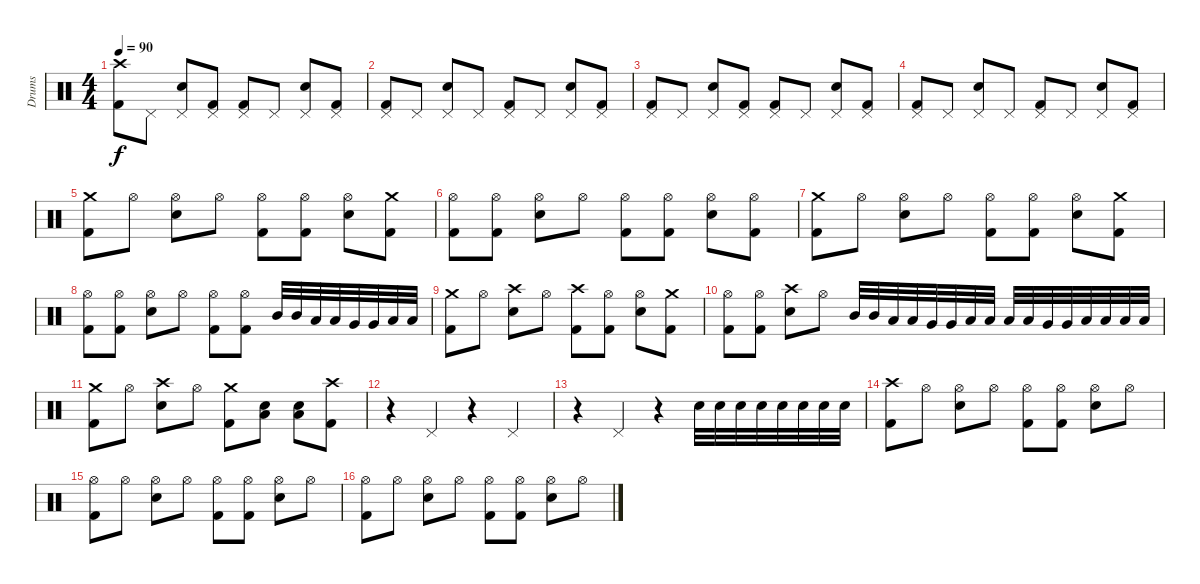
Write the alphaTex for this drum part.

\track ("Drums" "Drums") {instrument percussion}
\staff {score}
\articulation defaults
\ts (4 4)
\tempo 90
\clef neutral
\ks c
("Crash high (hit)" "Kick (hit) 2").8{dy f} "Pedal Hi-Hat (hit)".8 ("Pedal Hi-Hat (hit)" "Electric Snare (hit)").8 ("Pedal Hi-Hat (hit)" "Kick (hit) 2").8 ("Pedal Hi-Hat (hit)" "Kick (hit) 2").8 "Pedal Hi-Hat (hit)".8 ("Pedal Hi-Hat (hit)" "Electric Snare (hit)").8 ("Pedal Hi-Hat (hit)" "Kick (hit) 2").8 |
("Pedal Hi-Hat (hit)" "Kick (hit) 2").8 "Pedal Hi-Hat (hit)".8 ("Pedal Hi-Hat (hit)" "Electric Snare (hit)").8 "Pedal Hi-Hat (hit)".8 ("Pedal Hi-Hat (hit)" "Kick (hit) 2").8 "Pedal Hi-Hat (hit)".8 ("Pedal Hi-Hat (hit)" "Electric Snare (hit)").8 ("Pedal Hi-Hat (hit)" "Kick (hit) 2").8 |
("Pedal Hi-Hat (hit)" "Kick (hit) 2").8 "Pedal Hi-Hat (hit)".8 ("Pedal Hi-Hat (hit)" "Electric Snare (hit)").8 ("Pedal Hi-Hat (hit)" "Kick (hit) 2").8 ("Pedal Hi-Hat (hit)" "Kick (hit) 2").8 "Pedal Hi-Hat (hit)".8 ("Pedal Hi-Hat (hit)" "Electric Snare (hit)").8 ("Pedal Hi-Hat (hit)" "Kick (hit) 2").8 |
("Pedal Hi-Hat (hit)" "Kick (hit) 2").8 "Pedal Hi-Hat (hit)".8 ("Pedal Hi-Hat (hit)" "Electric Snare (hit)").8 "Pedal Hi-Hat (hit)".8 ("Pedal Hi-Hat (hit)" "Kick (hit) 2").8 "Pedal Hi-Hat (hit)".8 ("Pedal Hi-Hat (hit)" "Electric Snare (hit)").8 ("Pedal Hi-Hat (hit)" "Kick (hit) 2").8 |
("Crash medium (hit)" "Kick (hit) 2").8 "Hi-Hat (open)".8 ("Hi-Hat (open)" "Electric Snare (hit)").8 "Hi-Hat (open)".8 ("Hi-Hat (open)" "Kick (hit) 2").8 ("Hi-Hat (open)" "Kick (hit) 2").8 ("Hi-Hat (open)" "Electric Snare (hit)").8 ("Crash medium (hit)" "Kick (hit) 2").8 |
("Hi-Hat (open)" "Kick (hit) 2").8 ("Hi-Hat (open)" "Kick (hit) 2").8 ("Hi-Hat (open)" "Electric Snare (hit)").8 "Hi-Hat (open)".8 ("Hi-Hat (open)" "Kick (hit) 2").8 ("Hi-Hat (open)" "Kick (hit) 2").8 ("Hi-Hat (open)" "Electric Snare (hit)").8 ("Hi-Hat (open)" "Kick (hit) 2").8 |
("Crash medium (hit)" "Kick (hit) 2").8 "Hi-Hat (open)".8 ("Hi-Hat (open)" "Electric Snare (hit)").8 "Hi-Hat (open)".8 ("Hi-Hat (open)" "Kick (hit) 2").8 ("Hi-Hat (open)" "Kick (hit) 2").8 ("Hi-Hat (open)" "Electric Snare (hit)").8 ("Crash medium (hit)" "Kick (hit) 2").8 |
("Hi-Hat (open)" "Kick (hit) 2").8 ("Hi-Hat (open)" "Kick (hit) 2").8 ("Hi-Hat (open)" "Electric Snare (hit)").8 "Hi-Hat (open)".8 ("Hi-Hat (open)" "Kick (hit) 2").8 ("Hi-Hat (open)" "Kick (hit) 2").8 "Mid Tom (hit)".32 "Mid Tom (hit)".32 "Low Tom (hit)".32 "Low Tom (hit)".32 "Very Low Tom (hit)".32 "Very Low Tom (hit)".32 "Low Floor Tom (hit)".32 "Low Floor Tom (hit)".32 |
("Crash medium (hit)" "Kick (hit) 2").8 "Hi-Hat (open)".8 ("Crash high (hit)" "Electric Snare (hit)").8 "Hi-Hat (open)".8 ("Crash high (hit)" "Kick (hit) 2").8 ("Hi-Hat (open)" "Kick (hit) 2").8 ("Hi-Hat (open)" "Electric Snare (hit)").8 ("Crash medium (hit)" "Kick (hit) 2").8 |
("Hi-Hat (open)" "Kick (hit) 2").8 ("Hi-Hat (open)" "Kick (hit) 2").8 ("Crash high (hit)" "Electric Snare (hit)").8 "Hi-Hat (open)".8 "Mid Tom (hit)".32 "Mid Tom (hit)".32 "Low Tom (hit)".32 "Low Tom (hit)".32 "Very Low Tom (hit)".32 "Very Low Tom (hit)".32 "Low Floor Tom (hit)".32 "Low Floor Tom (hit)".32 "Low Tom (hit)".32 "Low Tom (hit)".32 "Very Low Tom (hit)".32 "Very Low Tom (hit)".32 "Low Floor Tom (hit)".32 "Low Floor Tom (hit)".32 "Low Floor Tom (hit)".32 "Low Floor Tom (hit)".32 |
("Crash medium (hit)" "Kick (hit) 2").8 "Hi-Hat (open)".8 ("Crash high (hit)" "Electric Snare (hit)").8 "Hi-Hat (open)".8 ("Crash medium (hit)" "Kick (hit) 2").8 ("Low Floor Tom (hit)" "Electric Snare (hit)").8 ("Low Floor Tom (hit)" "Electric Snare (hit)").8 ("Crash high (hit)" "Kick (hit) 2").8 |
r.4 "Pedal Hi-Hat (hit)".4 r.4 "Pedal Hi-Hat (hit)".4 |
r.4 "Pedal Hi-Hat (hit)".4 r.4 "Electric Snare (hit)".32 "Electric Snare (hit)".32 "Electric Snare (hit)".32 "Electric Snare (hit)".32 "Electric Snare (hit)".32 "Electric Snare (hit)".32 "Electric Snare (hit)".32 "Electric Snare (hit)".32 |
("Crash high (hit)" "Kick (hit) 2").8 "Hi-Hat (open)".8 ("Hi-Hat (open)" "Electric Snare (hit)").8 "Hi-Hat (open)".8 ("Hi-Hat (open)" "Kick (hit) 2").8 ("Hi-Hat (open)" "Kick (hit) 2").8 ("Hi-Hat (open)" "Electric Snare (hit)").8 "Hi-Hat (open)".8 |
("Hi-Hat (open)" "Kick (hit) 2").8 "Hi-Hat (open)".8 ("Hi-Hat (open)" "Electric Snare (hit)").8 "Hi-Hat (open)".8 ("Hi-Hat (open)" "Kick (hit) 2").8 ("Hi-Hat (open)" "Kick (hit) 2").8 ("Hi-Hat (open)" "Electric Snare (hit)").8 "Hi-Hat (open)".8 |
("Hi-Hat (open)" "Kick (hit) 2").8 "Hi-Hat (open)".8 ("Hi-Hat (open)" "Electric Snare (hit)").8 "Hi-Hat (open)".8 ("Hi-Hat (open)" "Kick (hit) 2").8 ("Hi-Hat (open)" "Kick (hit) 2").8 ("Hi-Hat (open)" "Electric Snare (hit)").8 "Hi-Hat (open)".8
